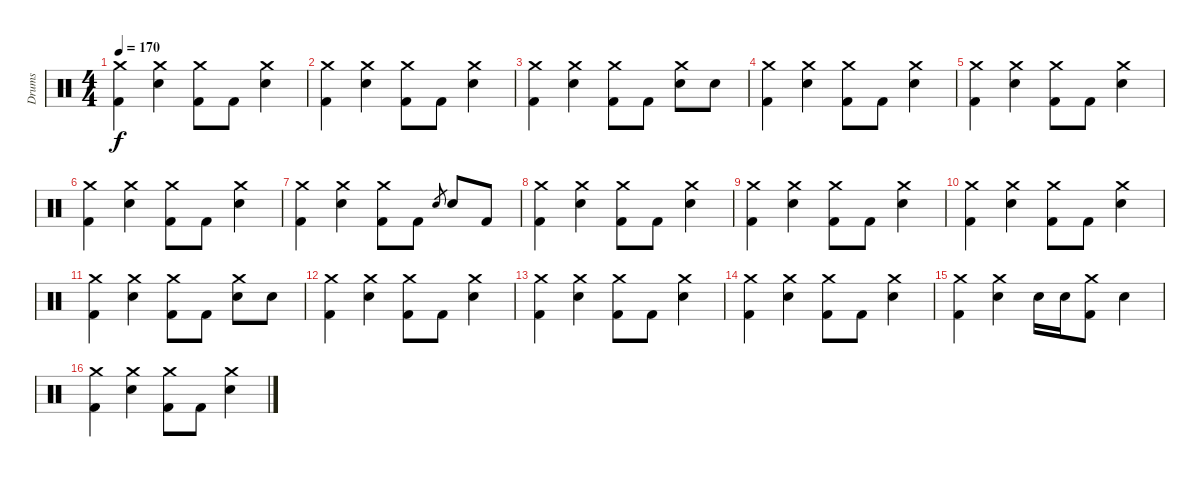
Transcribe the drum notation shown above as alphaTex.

\track ("Drums" "Drums") {instrument percussion}
\staff {score}
\articulation defaults
\ts (4 4)
\tempo 170
\clef neutral
\ks c
("Crash medium (hit)" "Kick (hit) 2").4{dy f} ("Crash medium (hit)" "Electric Snare (hit)").4 ("Crash medium (hit)" "Kick (hit) 2").8 "Kick (hit) 2".8 ("Crash medium (hit)" "Electric Snare (hit)").4 |
("Crash medium (hit)" "Kick (hit) 2").4 ("Crash medium (hit)" "Electric Snare (hit)").4 ("Crash medium (hit)" "Kick (hit) 2").8 "Kick (hit) 2".8 ("Crash medium (hit)" "Electric Snare (hit)").4 |
("Crash medium (hit)" "Kick (hit) 2").4 ("Crash medium (hit)" "Electric Snare (hit)").4 ("Crash medium (hit)" "Kick (hit) 2").8 "Kick (hit) 2".8 ("Crash medium (hit)" "Electric Snare (hit)").8 "Electric Snare (hit)".8 |
("Crash medium (hit)" "Kick (hit) 2").4 ("Crash medium (hit)" "Electric Snare (hit)").4 ("Crash medium (hit)" "Kick (hit) 2").8 "Kick (hit) 2".8 ("Crash medium (hit)" "Electric Snare (hit)").4 |
("Crash medium (hit)" "Kick (hit) 2").4 ("Crash medium (hit)" "Electric Snare (hit)").4 ("Crash medium (hit)" "Kick (hit) 2").8 "Kick (hit) 2".8 ("Crash medium (hit)" "Electric Snare (hit)").4 |
("Crash medium (hit)" "Kick (hit) 2").4 ("Crash medium (hit)" "Electric Snare (hit)").4 ("Crash medium (hit)" "Kick (hit) 2").8 "Kick (hit) 2".8 ("Crash medium (hit)" "Electric Snare (hit)").4 |
("Crash medium (hit)" "Kick (hit) 2").4 ("Crash medium (hit)" "Electric Snare (hit)").4 ("Crash medium (hit)" "Kick (hit) 2").8 "Kick (hit) 2".8 "Electric Snare (hit)".8{gr} "Electric Snare (hit)".8 "Kick (hit) 2".8 |
("Crash medium (hit)" "Kick (hit) 2").4 ("Crash medium (hit)" "Electric Snare (hit)").4 ("Crash medium (hit)" "Kick (hit) 2").8 "Kick (hit) 2".8 ("Crash medium (hit)" "Electric Snare (hit)").4 |
("Crash medium (hit)" "Kick (hit) 2").4 ("Crash medium (hit)" "Electric Snare (hit)").4 ("Crash medium (hit)" "Kick (hit) 2").8 "Kick (hit) 2".8 ("Crash medium (hit)" "Electric Snare (hit)").4 |
("Crash medium (hit)" "Kick (hit) 2").4 ("Crash medium (hit)" "Electric Snare (hit)").4 ("Crash medium (hit)" "Kick (hit) 2").8 "Kick (hit) 2".8 ("Crash medium (hit)" "Electric Snare (hit)").4 |
("Crash medium (hit)" "Kick (hit) 2").4 ("Crash medium (hit)" "Electric Snare (hit)").4 ("Crash medium (hit)" "Kick (hit) 2").8 "Kick (hit) 2".8 ("Crash medium (hit)" "Electric Snare (hit)").8 "Electric Snare (hit)".8 |
("Crash medium (hit)" "Kick (hit) 2").4 ("Crash medium (hit)" "Electric Snare (hit)").4 ("Crash medium (hit)" "Kick (hit) 2").8 "Kick (hit) 2".8 ("Crash medium (hit)" "Electric Snare (hit)").4 |
("Crash medium (hit)" "Kick (hit) 2").4 ("Crash medium (hit)" "Electric Snare (hit)").4 ("Crash medium (hit)" "Kick (hit) 2").8 "Kick (hit) 2".8 ("Crash medium (hit)" "Electric Snare (hit)").4 |
("Crash medium (hit)" "Kick (hit) 2").4 ("Crash medium (hit)" "Electric Snare (hit)").4 ("Crash medium (hit)" "Kick (hit) 2").8 "Kick (hit) 2".8 ("Crash medium (hit)" "Electric Snare (hit)").4 |
("Crash medium (hit)" "Kick (hit) 2").4 ("Crash medium (hit)" "Electric Snare (hit)").4 "Electric Snare (hit)".16 "Electric Snare (hit)".16 ("Crash medium (hit)" "Kick (hit) 2").8 "Electric Snare (hit)".4 |
("Crash medium (hit)" "Kick (hit) 2").4 ("Crash medium (hit)" "Electric Snare (hit)").4 ("Crash medium (hit)" "Kick (hit) 2").8 "Kick (hit) 2".8 ("Crash medium (hit)" "Electric Snare (hit)").4
